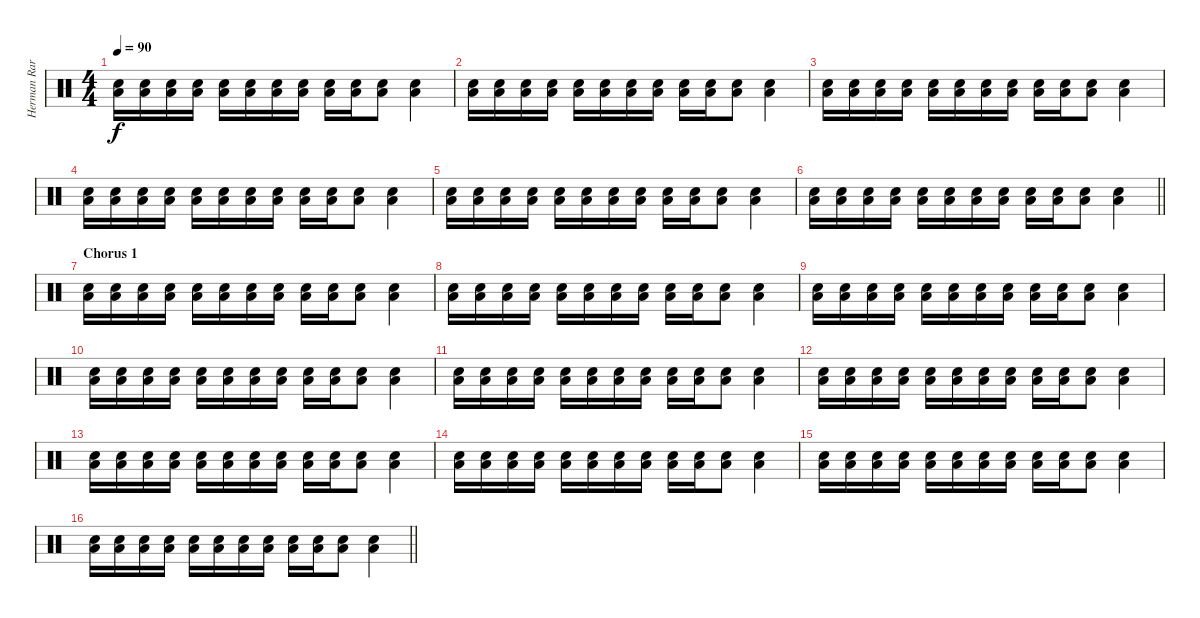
\track ("Herman Rarebell (Drums)" "Herman Rar") {instrument percussion}
\staff {score}
\articulation defaults
\ts (4 4)
\tempo 90
\clef neutral
\ks c
("Electric Snare (hit)" "Low Floor Tom (hit)").16{dy f} ("Electric Snare (hit)" "Low Floor Tom (hit)").16 ("Electric Snare (hit)" "Low Floor Tom (hit)").16 ("Electric Snare (hit)" "Low Floor Tom (hit)").16 ("Electric Snare (hit)" "Low Floor Tom (hit)").16 ("Electric Snare (hit)" "Low Floor Tom (hit)").16 ("Electric Snare (hit)" "Low Floor Tom (hit)").16 ("Electric Snare (hit)" "Low Floor Tom (hit)").16 ("Electric Snare (hit)" "Low Floor Tom (hit)").16 ("Electric Snare (hit)" "Low Floor Tom (hit)").16 ("Electric Snare (hit)" "Low Floor Tom (hit)").8 ("Electric Snare (hit)" "Low Floor Tom (hit)").4{bd 240} |
("Electric Snare (hit)" "Low Floor Tom (hit)").16 ("Electric Snare (hit)" "Low Floor Tom (hit)").16 ("Electric Snare (hit)" "Low Floor Tom (hit)").16 ("Electric Snare (hit)" "Low Floor Tom (hit)").16 ("Electric Snare (hit)" "Low Floor Tom (hit)").16 ("Electric Snare (hit)" "Low Floor Tom (hit)").16 ("Electric Snare (hit)" "Low Floor Tom (hit)").16 ("Electric Snare (hit)" "Low Floor Tom (hit)").16 ("Electric Snare (hit)" "Low Floor Tom (hit)").16 ("Electric Snare (hit)" "Low Floor Tom (hit)").16 ("Electric Snare (hit)" "Low Floor Tom (hit)").8 ("Electric Snare (hit)" "Low Floor Tom (hit)").4{bd 240} |
("Electric Snare (hit)" "Low Floor Tom (hit)").16 ("Electric Snare (hit)" "Low Floor Tom (hit)").16 ("Electric Snare (hit)" "Low Floor Tom (hit)").16 ("Electric Snare (hit)" "Low Floor Tom (hit)").16 ("Electric Snare (hit)" "Low Floor Tom (hit)").16 ("Electric Snare (hit)" "Low Floor Tom (hit)").16 ("Electric Snare (hit)" "Low Floor Tom (hit)").16 ("Electric Snare (hit)" "Low Floor Tom (hit)").16 ("Electric Snare (hit)" "Low Floor Tom (hit)").16 ("Electric Snare (hit)" "Low Floor Tom (hit)").16 ("Electric Snare (hit)" "Low Floor Tom (hit)").8 ("Electric Snare (hit)" "Low Floor Tom (hit)").4{bd 240} |
("Electric Snare (hit)" "Low Floor Tom (hit)").16 ("Electric Snare (hit)" "Low Floor Tom (hit)").16 ("Electric Snare (hit)" "Low Floor Tom (hit)").16 ("Electric Snare (hit)" "Low Floor Tom (hit)").16 ("Electric Snare (hit)" "Low Floor Tom (hit)").16 ("Electric Snare (hit)" "Low Floor Tom (hit)").16 ("Electric Snare (hit)" "Low Floor Tom (hit)").16 ("Electric Snare (hit)" "Low Floor Tom (hit)").16 ("Electric Snare (hit)" "Low Floor Tom (hit)").16 ("Electric Snare (hit)" "Low Floor Tom (hit)").16 ("Electric Snare (hit)" "Low Floor Tom (hit)").8 ("Electric Snare (hit)" "Low Floor Tom (hit)").4{bd 240} |
("Electric Snare (hit)" "Low Floor Tom (hit)").16 ("Electric Snare (hit)" "Low Floor Tom (hit)").16 ("Electric Snare (hit)" "Low Floor Tom (hit)").16 ("Electric Snare (hit)" "Low Floor Tom (hit)").16 ("Electric Snare (hit)" "Low Floor Tom (hit)").16 ("Electric Snare (hit)" "Low Floor Tom (hit)").16 ("Electric Snare (hit)" "Low Floor Tom (hit)").16 ("Electric Snare (hit)" "Low Floor Tom (hit)").16 ("Electric Snare (hit)" "Low Floor Tom (hit)").16 ("Electric Snare (hit)" "Low Floor Tom (hit)").16 ("Electric Snare (hit)" "Low Floor Tom (hit)").8 ("Electric Snare (hit)" "Low Floor Tom (hit)").4{bd 240} |
\barLineRight lightlight
("Electric Snare (hit)" "Low Floor Tom (hit)").16 ("Electric Snare (hit)" "Low Floor Tom (hit)").16 ("Electric Snare (hit)" "Low Floor Tom (hit)").16 ("Electric Snare (hit)" "Low Floor Tom (hit)").16 ("Electric Snare (hit)" "Low Floor Tom (hit)").16 ("Electric Snare (hit)" "Low Floor Tom (hit)").16 ("Electric Snare (hit)" "Low Floor Tom (hit)").16 ("Electric Snare (hit)" "Low Floor Tom (hit)").16 ("Electric Snare (hit)" "Low Floor Tom (hit)").16 ("Electric Snare (hit)" "Low Floor Tom (hit)").16 ("Electric Snare (hit)" "Low Floor Tom (hit)").8 ("Electric Snare (hit)" "Low Floor Tom (hit)").4{bd 240} |
\section ("" "Chorus 1")
("Electric Snare (hit)" "Low Floor Tom (hit)").16 ("Electric Snare (hit)" "Low Floor Tom (hit)").16 ("Electric Snare (hit)" "Low Floor Tom (hit)").16 ("Electric Snare (hit)" "Low Floor Tom (hit)").16 ("Electric Snare (hit)" "Low Floor Tom (hit)").16 ("Electric Snare (hit)" "Low Floor Tom (hit)").16 ("Electric Snare (hit)" "Low Floor Tom (hit)").16 ("Electric Snare (hit)" "Low Floor Tom (hit)").16 ("Electric Snare (hit)" "Low Floor Tom (hit)").16 ("Electric Snare (hit)" "Low Floor Tom (hit)").16 ("Electric Snare (hit)" "Low Floor Tom (hit)").8 ("Electric Snare (hit)" "Low Floor Tom (hit)").4{bd 240} |
("Electric Snare (hit)" "Low Floor Tom (hit)").16 ("Electric Snare (hit)" "Low Floor Tom (hit)").16 ("Electric Snare (hit)" "Low Floor Tom (hit)").16 ("Electric Snare (hit)" "Low Floor Tom (hit)").16 ("Electric Snare (hit)" "Low Floor Tom (hit)").16 ("Electric Snare (hit)" "Low Floor Tom (hit)").16 ("Electric Snare (hit)" "Low Floor Tom (hit)").16 ("Electric Snare (hit)" "Low Floor Tom (hit)").16 ("Electric Snare (hit)" "Low Floor Tom (hit)").16 ("Electric Snare (hit)" "Low Floor Tom (hit)").16 ("Electric Snare (hit)" "Low Floor Tom (hit)").8 ("Electric Snare (hit)" "Low Floor Tom (hit)").4{bd 240} |
("Electric Snare (hit)" "Low Floor Tom (hit)").16 ("Electric Snare (hit)" "Low Floor Tom (hit)").16 ("Electric Snare (hit)" "Low Floor Tom (hit)").16 ("Electric Snare (hit)" "Low Floor Tom (hit)").16 ("Electric Snare (hit)" "Low Floor Tom (hit)").16 ("Electric Snare (hit)" "Low Floor Tom (hit)").16 ("Electric Snare (hit)" "Low Floor Tom (hit)").16 ("Electric Snare (hit)" "Low Floor Tom (hit)").16 ("Electric Snare (hit)" "Low Floor Tom (hit)").16 ("Electric Snare (hit)" "Low Floor Tom (hit)").16 ("Electric Snare (hit)" "Low Floor Tom (hit)").8 ("Electric Snare (hit)" "Low Floor Tom (hit)").4{bd 240} |
("Electric Snare (hit)" "Low Floor Tom (hit)").16 ("Electric Snare (hit)" "Low Floor Tom (hit)").16 ("Electric Snare (hit)" "Low Floor Tom (hit)").16 ("Electric Snare (hit)" "Low Floor Tom (hit)").16 ("Electric Snare (hit)" "Low Floor Tom (hit)").16 ("Electric Snare (hit)" "Low Floor Tom (hit)").16 ("Electric Snare (hit)" "Low Floor Tom (hit)").16 ("Electric Snare (hit)" "Low Floor Tom (hit)").16 ("Electric Snare (hit)" "Low Floor Tom (hit)").16 ("Electric Snare (hit)" "Low Floor Tom (hit)").16 ("Electric Snare (hit)" "Low Floor Tom (hit)").8 ("Electric Snare (hit)" "Low Floor Tom (hit)").4{bd 240} |
("Electric Snare (hit)" "Low Floor Tom (hit)").16 ("Electric Snare (hit)" "Low Floor Tom (hit)").16 ("Electric Snare (hit)" "Low Floor Tom (hit)").16 ("Electric Snare (hit)" "Low Floor Tom (hit)").16 ("Electric Snare (hit)" "Low Floor Tom (hit)").16 ("Electric Snare (hit)" "Low Floor Tom (hit)").16 ("Electric Snare (hit)" "Low Floor Tom (hit)").16 ("Electric Snare (hit)" "Low Floor Tom (hit)").16 ("Electric Snare (hit)" "Low Floor Tom (hit)").16 ("Electric Snare (hit)" "Low Floor Tom (hit)").16 ("Electric Snare (hit)" "Low Floor Tom (hit)").8 ("Electric Snare (hit)" "Low Floor Tom (hit)").4{bd 240} |
("Electric Snare (hit)" "Low Floor Tom (hit)").16 ("Electric Snare (hit)" "Low Floor Tom (hit)").16 ("Electric Snare (hit)" "Low Floor Tom (hit)").16 ("Electric Snare (hit)" "Low Floor Tom (hit)").16 ("Electric Snare (hit)" "Low Floor Tom (hit)").16 ("Electric Snare (hit)" "Low Floor Tom (hit)").16 ("Electric Snare (hit)" "Low Floor Tom (hit)").16 ("Electric Snare (hit)" "Low Floor Tom (hit)").16 ("Electric Snare (hit)" "Low Floor Tom (hit)").16 ("Electric Snare (hit)" "Low Floor Tom (hit)").16 ("Electric Snare (hit)" "Low Floor Tom (hit)").8 ("Electric Snare (hit)" "Low Floor Tom (hit)").4{bd 240} |
("Electric Snare (hit)" "Low Floor Tom (hit)").16 ("Electric Snare (hit)" "Low Floor Tom (hit)").16 ("Electric Snare (hit)" "Low Floor Tom (hit)").16 ("Electric Snare (hit)" "Low Floor Tom (hit)").16 ("Electric Snare (hit)" "Low Floor Tom (hit)").16 ("Electric Snare (hit)" "Low Floor Tom (hit)").16 ("Electric Snare (hit)" "Low Floor Tom (hit)").16 ("Electric Snare (hit)" "Low Floor Tom (hit)").16 ("Electric Snare (hit)" "Low Floor Tom (hit)").16 ("Electric Snare (hit)" "Low Floor Tom (hit)").16 ("Electric Snare (hit)" "Low Floor Tom (hit)").8 ("Electric Snare (hit)" "Low Floor Tom (hit)").4{bd 240} |
("Electric Snare (hit)" "Low Floor Tom (hit)").16 ("Electric Snare (hit)" "Low Floor Tom (hit)").16 ("Electric Snare (hit)" "Low Floor Tom (hit)").16 ("Electric Snare (hit)" "Low Floor Tom (hit)").16 ("Electric Snare (hit)" "Low Floor Tom (hit)").16 ("Electric Snare (hit)" "Low Floor Tom (hit)").16 ("Electric Snare (hit)" "Low Floor Tom (hit)").16 ("Electric Snare (hit)" "Low Floor Tom (hit)").16 ("Electric Snare (hit)" "Low Floor Tom (hit)").16 ("Electric Snare (hit)" "Low Floor Tom (hit)").16 ("Electric Snare (hit)" "Low Floor Tom (hit)").8 ("Electric Snare (hit)" "Low Floor Tom (hit)").4{bd 240} |
("Electric Snare (hit)" "Low Floor Tom (hit)").16 ("Electric Snare (hit)" "Low Floor Tom (hit)").16 ("Electric Snare (hit)" "Low Floor Tom (hit)").16 ("Electric Snare (hit)" "Low Floor Tom (hit)").16 ("Electric Snare (hit)" "Low Floor Tom (hit)").16 ("Electric Snare (hit)" "Low Floor Tom (hit)").16 ("Electric Snare (hit)" "Low Floor Tom (hit)").16 ("Electric Snare (hit)" "Low Floor Tom (hit)").16 ("Electric Snare (hit)" "Low Floor Tom (hit)").16 ("Electric Snare (hit)" "Low Floor Tom (hit)").16 ("Electric Snare (hit)" "Low Floor Tom (hit)").8 ("Electric Snare (hit)" "Low Floor Tom (hit)").4{bd 240} |
\barLineRight lightlight
("Electric Snare (hit)" "Low Floor Tom (hit)").16 ("Electric Snare (hit)" "Low Floor Tom (hit)").16 ("Electric Snare (hit)" "Low Floor Tom (hit)").16 ("Electric Snare (hit)" "Low Floor Tom (hit)").16 ("Electric Snare (hit)" "Low Floor Tom (hit)").16 ("Electric Snare (hit)" "Low Floor Tom (hit)").16 ("Electric Snare (hit)" "Low Floor Tom (hit)").16 ("Electric Snare (hit)" "Low Floor Tom (hit)").16 ("Electric Snare (hit)" "Low Floor Tom (hit)").16 ("Electric Snare (hit)" "Low Floor Tom (hit)").16 ("Electric Snare (hit)" "Low Floor Tom (hit)").8 ("Electric Snare (hit)" "Low Floor Tom (hit)").4{bd 240}
